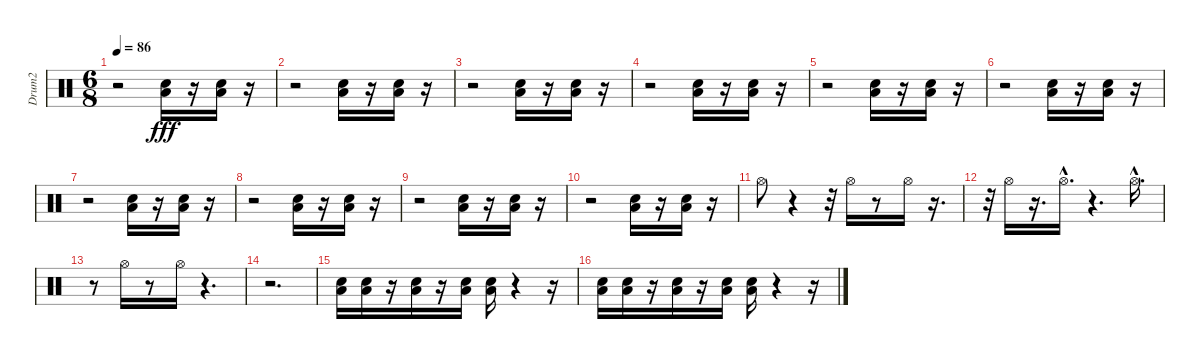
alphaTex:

\track ("Drum2" "Drum2") {instrument percussion}
\staff {score}
\articulation defaults
\ts (6 8)
\tempo 86
\clef neutral
\ks c
r.2{dy fff} ("Snare (hit) 2" "Low Floor Tom (hit)").16 r.16 ("Snare (hit) 2" "Low Floor Tom (hit)").16 r.16 |
r.2 ("Snare (hit) 2" "Low Floor Tom (hit)").16 r.16 ("Snare (hit) 2" "Low Floor Tom (hit)").16 r.16 |
r.2 ("Snare (hit) 2" "Low Floor Tom (hit)").16 r.16 ("Snare (hit) 2" "Low Floor Tom (hit)").16 r.16 |
r.2 ("Snare (hit) 2" "Low Floor Tom (hit)").16 r.16 ("Snare (hit) 2" "Low Floor Tom (hit)").16 r.16 |
r.2 ("Snare (hit) 2" "Low Floor Tom (hit)").16 r.16 ("Snare (hit) 2" "Low Floor Tom (hit)").16 r.16 |
r.2 ("Snare (hit) 2" "Low Floor Tom (hit)").16 r.16 ("Snare (hit) 2" "Low Floor Tom (hit)").16 r.16 |
r.2 ("Snare (hit) 2" "Low Floor Tom (hit)").16 r.16 ("Snare (hit) 2" "Low Floor Tom (hit)").16 r.16 |
r.2 ("Snare (hit) 2" "Low Floor Tom (hit)").16 r.16 ("Snare (hit) 2" "Low Floor Tom (hit)").16 r.16 |
r.2 ("Snare (hit) 2" "Low Floor Tom (hit)").16 r.16 ("Snare (hit) 2" "Low Floor Tom (hit)").16 r.16 |
r.2 ("Snare (hit) 2" "Low Floor Tom (hit)").16 r.16 ("Snare (hit) 2" "Low Floor Tom (hit)").16 r.16 |
"Hi-Hat (open)".8 r.4 r.32 "Hi-Hat (open)".16{volume 9} r.8 "Hi-Hat (open)".16{volume 10} r.16{d} |
r.32 "Hi-Hat (open)".16{volume 10} r.16{d} "Hi-Hat (open)"{hac}.16{d volume 11} r.4{d} "Hi-Hat (open)"{hac}.16{d volume 13} |
r.8 "Hi-Hat (open)".16{volume 10} r.8 "Hi-Hat (open)".16{volume 12} r.4{d} |
r.2{d} |
("Snare (hit) 2" "Low Floor Tom (hit)").16{volume 5} ("Snare (hit) 2" "Low Floor Tom (hit)").16{volume 5} r.16 ("Snare (hit) 2" "Low Floor Tom (hit)").16{volume 5} r.16 ("Snare (hit) 2" "Low Floor Tom (hit)").16{volume 6} ("Snare (hit) 2" "Low Floor Tom (hit)").16 r.4 r.16 |
("Snare (hit) 2" "Low Floor Tom (hit)").16{volume 6} ("Snare (hit) 2" "Low Floor Tom (hit)").16{volume 6} r.16 ("Snare (hit) 2" "Low Floor Tom (hit)").16{volume 6} r.16 ("Snare (hit) 2" "Low Floor Tom (hit)").16{volume 6} ("Snare (hit) 2" "Low Floor Tom (hit)").16{volume 7} r.4 r.16
